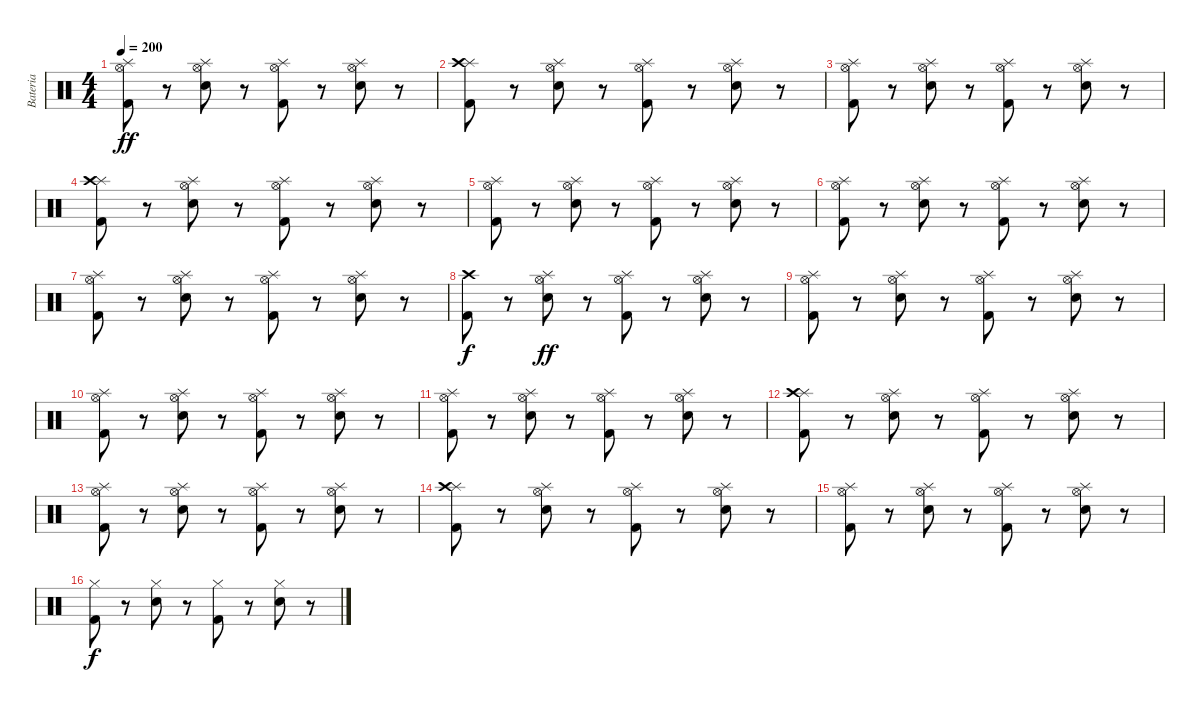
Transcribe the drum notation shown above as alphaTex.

\track ("Bateria" "Bateria") {instrument percussion}
\staff {score}
\articulation defaults
\ts (4 4)
\tempo 200
\clef neutral
\ks c
("Splash (hit)" "Hi-Hat (open)" "Kick (hit) 2").8{dy ff} r.8 ("Splash (hit)" "Hi-Hat (open)" "Snare (hit) 2").8 r.8 ("Splash (hit)" "Hi-Hat (open)" "Kick (hit) 2").8 r.8 ("Splash (hit)" "Hi-Hat (open)" "Snare (hit) 2").8 r.8 |
("Splash (hit)" "Crash high (hit)" "Kick (hit) 2").8 r.8 ("Splash (hit)" "Hi-Hat (open)" "Snare (hit) 2").8 r.8 ("Splash (hit)" "Hi-Hat (open)" "Kick (hit) 2").8 r.8 ("Splash (hit)" "Hi-Hat (open)" "Snare (hit) 2").8 r.8 |
("Splash (hit)" "Hi-Hat (open)" "Kick (hit) 2").8 r.8 ("Splash (hit)" "Hi-Hat (open)" "Snare (hit) 2").8 r.8 ("Splash (hit)" "Hi-Hat (open)" "Kick (hit) 2").8 r.8 ("Splash (hit)" "Hi-Hat (open)" "Snare (hit) 2").8 r.8 |
("Splash (hit)" "Crash high (hit)" "Kick (hit) 2").8 r.8 ("Splash (hit)" "Hi-Hat (open)" "Snare (hit) 2").8 r.8 ("Splash (hit)" "Hi-Hat (open)" "Kick (hit) 2").8 r.8 ("Splash (hit)" "Hi-Hat (open)" "Snare (hit) 2").8 r.8 |
("Splash (hit)" "Hi-Hat (open)" "Kick (hit) 2").8 r.8 ("Splash (hit)" "Hi-Hat (open)" "Snare (hit) 2").8 r.8 ("Splash (hit)" "Hi-Hat (open)" "Kick (hit) 2").8 r.8 ("Splash (hit)" "Hi-Hat (open)" "Snare (hit) 2").8 r.8 |
("Splash (hit)" "Hi-Hat (open)" "Kick (hit) 2").8 r.8 ("Splash (hit)" "Hi-Hat (open)" "Snare (hit) 2").8 r.8 ("Splash (hit)" "Hi-Hat (open)" "Kick (hit) 2").8 r.8 ("Splash (hit)" "Hi-Hat (open)" "Snare (hit) 2").8 r.8 |
("Splash (hit)" "Hi-Hat (open)" "Kick (hit) 2").8 r.8 ("Splash (hit)" "Hi-Hat (open)" "Snare (hit) 2").8 r.8 ("Splash (hit)" "Hi-Hat (open)" "Kick (hit) 2").8 r.8 ("Splash (hit)" "Hi-Hat (open)" "Snare (hit) 2").8 r.8 |
("Crash high (hit)" "Kick (hit) 2").8{dy f} r.8 ("Splash (hit)" "Hi-Hat (open)" "Snare (hit) 2").8{dy ff} r.8 ("Splash (hit)" "Hi-Hat (open)" "Kick (hit) 2").8 r.8 ("Splash (hit)" "Hi-Hat (open)" "Snare (hit) 2").8 r.8 |
("Splash (hit)" "Hi-Hat (open)" "Kick (hit) 2").8 r.8 ("Splash (hit)" "Hi-Hat (open)" "Snare (hit) 2").8 r.8 ("Splash (hit)" "Hi-Hat (open)" "Kick (hit) 2").8 r.8 ("Splash (hit)" "Hi-Hat (open)" "Snare (hit) 2").8 r.8 |
("Splash (hit)" "Hi-Hat (open)" "Kick (hit) 2").8 r.8 ("Splash (hit)" "Hi-Hat (open)" "Snare (hit) 2").8 r.8 ("Splash (hit)" "Hi-Hat (open)" "Kick (hit) 2").8 r.8 ("Splash (hit)" "Hi-Hat (open)" "Snare (hit) 2").8 r.8 |
("Splash (hit)" "Hi-Hat (open)" "Kick (hit) 2").8 r.8 ("Splash (hit)" "Hi-Hat (open)" "Snare (hit) 2").8 r.8 ("Splash (hit)" "Hi-Hat (open)" "Kick (hit) 2").8 r.8 ("Splash (hit)" "Hi-Hat (open)" "Snare (hit) 2").8 r.8 |
("Splash (hit)" "Crash high (hit)" "Kick (hit) 2").8 r.8 ("Splash (hit)" "Hi-Hat (open)" "Snare (hit) 2").8 r.8 ("Splash (hit)" "Hi-Hat (open)" "Kick (hit) 2").8 r.8 ("Splash (hit)" "Hi-Hat (open)" "Snare (hit) 2").8 r.8 |
("Splash (hit)" "Hi-Hat (open)" "Kick (hit) 2").8 r.8 ("Splash (hit)" "Hi-Hat (open)" "Snare (hit) 2").8 r.8 ("Splash (hit)" "Hi-Hat (open)" "Kick (hit) 2").8 r.8 ("Splash (hit)" "Hi-Hat (open)" "Snare (hit) 2").8 r.8 |
("Splash (hit)" "Crash high (hit)" "Kick (hit) 2").8 r.8 ("Splash (hit)" "Hi-Hat (open)" "Snare (hit) 2").8 r.8 ("Splash (hit)" "Hi-Hat (open)" "Kick (hit) 2").8 r.8 ("Splash (hit)" "Hi-Hat (open)" "Snare (hit) 2").8 r.8 |
("Splash (hit)" "Hi-Hat (open)" "Kick (hit) 2").8 r.8 ("Splash (hit)" "Hi-Hat (open)" "Snare (hit) 2").8 r.8 ("Splash (hit)" "Hi-Hat (open)" "Kick (hit) 2").8 r.8 ("Splash (hit)" "Hi-Hat (open)" "Snare (hit) 2").8 r.8 |
("Hi-Hat (closed)" "Kick (hit) 2").8{dy f} r.8 ("Hi-Hat (closed)" "Snare (hit) 2").8 r.8 ("Hi-Hat (closed)" "Kick (hit) 2").8 r.8 ("Hi-Hat (closed)" "Snare (hit) 2").8 r.8
